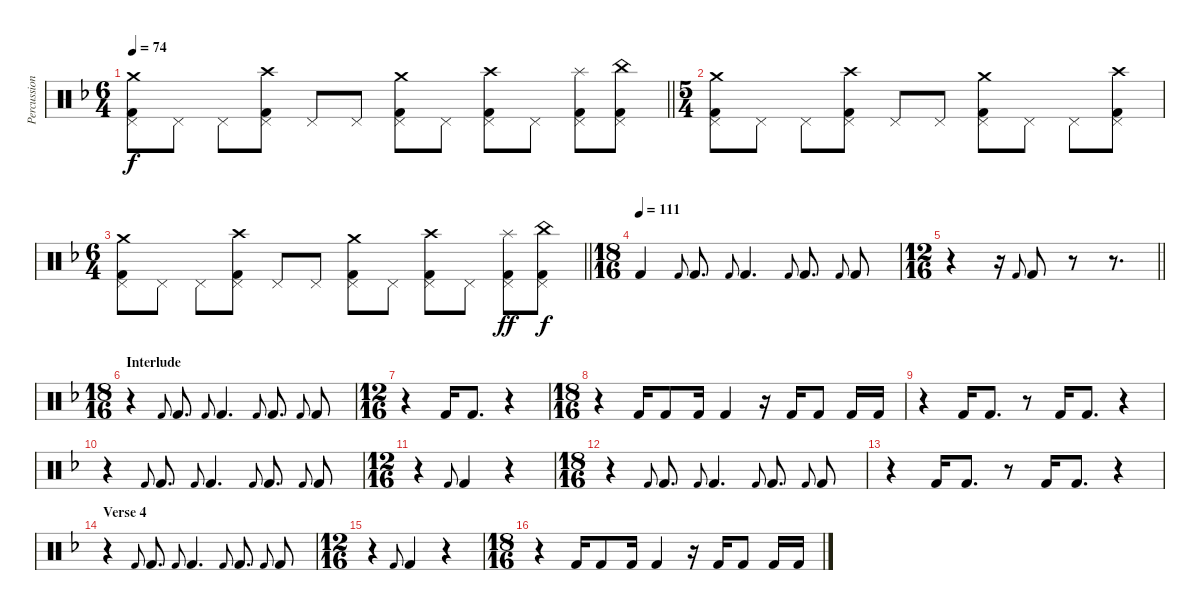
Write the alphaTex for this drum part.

\track ("Percussion" "Percussion") {instrument percussion}
\staff {score}
\articulation defaults
\ts (6 4)
\tempo 74
\clef neutral
\barLineRight lightlight
\ks f
("Pedal Hi-Hat (hit)" "Kick (hit) 2" "Crash medium (hit)").8{dy f} "Pedal Hi-Hat (hit)".8 "Pedal Hi-Hat (hit)".8 ("Pedal Hi-Hat (hit)" "Kick (hit) 2" "Crash high (hit)").8 "Pedal Hi-Hat (hit)".8 "Pedal Hi-Hat (hit)".8 ("Pedal Hi-Hat (hit)" "Kick (hit) 2" "Crash medium (hit)").8 "Pedal Hi-Hat (hit)".8 ("Pedal Hi-Hat (hit)" "Kick (hit) 2" "Crash high (hit)").8 "Pedal Hi-Hat (hit)".8 ("Pedal Hi-Hat (hit)" "Kick (hit) 2" "Splash (hit)").8 ("Pedal Hi-Hat (hit)" "Kick (hit) 2" "China (hit)").8 |
\ts (5 4)
("Pedal Hi-Hat (hit)" "Kick (hit) 2" "Crash medium (hit)").8 "Pedal Hi-Hat (hit)".8 "Pedal Hi-Hat (hit)".8 ("Pedal Hi-Hat (hit)" "Kick (hit) 2" "Crash high (hit)").8 "Pedal Hi-Hat (hit)".8 "Pedal Hi-Hat (hit)".8 ("Pedal Hi-Hat (hit)" "Kick (hit) 2" "Crash medium (hit)").8 "Pedal Hi-Hat (hit)".8 "Pedal Hi-Hat (hit)".8 ("Pedal Hi-Hat (hit)" "Kick (hit) 2" "Crash high (hit)").8 |
\ts (6 4)
\barLineRight lightlight
("Pedal Hi-Hat (hit)" "Kick (hit) 2" "Crash medium (hit)").8 "Pedal Hi-Hat (hit)".8 "Pedal Hi-Hat (hit)".8 ("Pedal Hi-Hat (hit)" "Kick (hit) 2" "Crash high (hit)").8 "Pedal Hi-Hat (hit)".8 "Pedal Hi-Hat (hit)".8 ("Pedal Hi-Hat (hit)" "Kick (hit) 2" "Crash medium (hit)").8 "Pedal Hi-Hat (hit)".8 ("Pedal Hi-Hat (hit)" "Kick (hit) 2" "Crash high (hit)").8 "Pedal Hi-Hat (hit)".8 ("Pedal Hi-Hat (hit)" "Kick (hit) 2" "Splash (hit)").8{dy ff} ("Pedal Hi-Hat (hit)" "Kick (hit) 2" "China (hit)").8{dy f} |
\ts (18 16)
\tempo (111)
"Kick (hit) 2".4 "Kick (hit) 2".8{gr onbeat} "Kick (hit) 2".8{d} "Kick (hit) 2".8{gr onbeat} "Kick (hit) 2".4{d} "Kick (hit) 2".8{gr onbeat} "Kick (hit) 2".8{d} "Kick (hit) 2".8{gr onbeat} "Kick (hit) 2".8 |
\ts (12 16)
\barLineRight lightlight
r.4 r.16 "Kick (hit) 2".8{gr onbeat} "Kick (hit) 2".8 r.8 r.8{d} |
\ts (18 16)
\section ("" "Interlude")
r.4 "Kick (hit) 2".8{gr onbeat} "Kick (hit) 2".8{d} "Kick (hit) 2".8{gr onbeat} "Kick (hit) 2".4{d} "Kick (hit) 2".8{gr onbeat} "Kick (hit) 2".8{d} "Kick (hit) 2".8{gr onbeat} "Kick (hit) 2".8 |
\ts (12 16)
r.4 "Kick (hit) 2".16 "Kick (hit) 2".8{d} r.4 |
\ts (18 16)
r.4 "Kick (hit) 2".16 "Kick (hit) 2".8 "Kick (hit) 2".16 "Kick (hit) 2".4 r.16 "Kick (hit) 2".16 "Kick (hit) 2".8 "Kick (hit) 2".16 "Kick (hit) 2".16 |
r.4 "Kick (hit) 2".16 "Kick (hit) 2".8{d} r.8 "Kick (hit) 2".16 "Kick (hit) 2".8{d} r.4 |
r.4 "Kick (hit) 2".8{gr onbeat} "Kick (hit) 2".8{d} "Kick (hit) 2".8{gr onbeat} "Kick (hit) 2".4{d} "Kick (hit) 2".8{gr onbeat} "Kick (hit) 2".8{d} "Kick (hit) 2".8{gr onbeat} "Kick (hit) 2".8 |
\ts (12 16)
r.4 "Kick (hit) 2".8{gr onbeat} "Kick (hit) 2".4 r.4 |
\ts (18 16)
r.4 "Kick (hit) 2".8{gr onbeat} "Kick (hit) 2".8{d} "Kick (hit) 2".8{gr onbeat} "Kick (hit) 2".4{d} "Kick (hit) 2".8{gr onbeat} "Kick (hit) 2".8{d} "Kick (hit) 2".8{gr onbeat} "Kick (hit) 2".8 |
r.4 "Kick (hit) 2".16 "Kick (hit) 2".8{d} r.8 "Kick (hit) 2".16 "Kick (hit) 2".8{d} r.4 |
\section ("" "Verse 4")
r.4 "Kick (hit) 2".8{gr onbeat} "Kick (hit) 2".8{d} "Kick (hit) 2".8{gr onbeat} "Kick (hit) 2".4{d} "Kick (hit) 2".8{gr onbeat} "Kick (hit) 2".8{d} "Kick (hit) 2".8{gr onbeat} "Kick (hit) 2".8 |
\ts (12 16)
r.4 "Kick (hit) 2".8{gr onbeat} "Kick (hit) 2".4 r.4 |
\ts (18 16)
r.4 "Kick (hit) 2".16 "Kick (hit) 2".8 "Kick (hit) 2".16 "Kick (hit) 2".4 r.16 "Kick (hit) 2".16 "Kick (hit) 2".8 "Kick (hit) 2".16 "Kick (hit) 2".16
